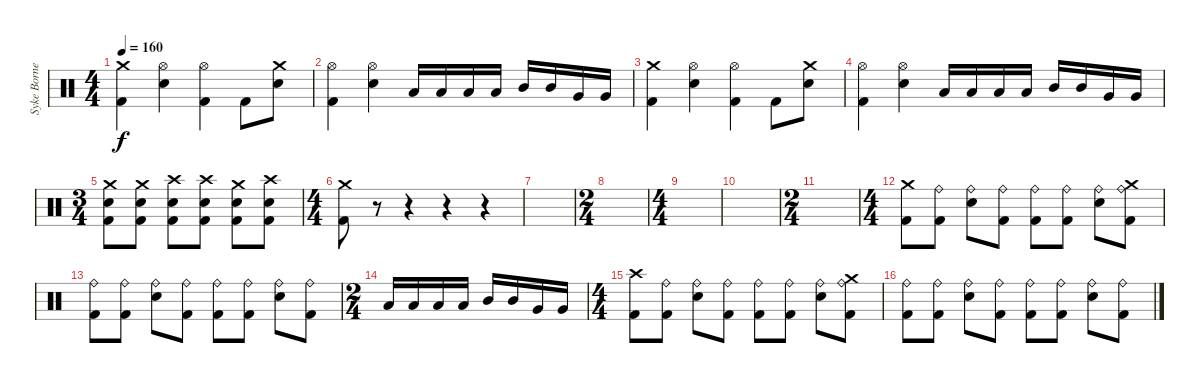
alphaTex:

\track ("Syke Bornetto (Drums)" "Syke Borne") {instrument percussion}
\staff {score}
\articulation defaults
\ts (4 4)
\tempo 160
\clef neutral
\ks c
("Crash medium (hit)" "Kick (hit) 2").4{dy f} ("Hi-Hat (open)" "Electric Snare (hit)").4 ("Hi-Hat (open)" "Kick (hit) 2").4 "Kick (hit) 2".8 ("Crash medium (hit)" "Electric Snare (hit)").8 |
("Hi-Hat (open)" "Kick (hit) 2").4 ("Hi-Hat (open)" "Electric Snare (hit)").4 "Low Floor Tom (hit)".16 "Low Floor Tom (hit)".16 "Low Tom (hit)".16 "Low Tom (hit)".16 "Mid Tom (hit)".16 "Mid Tom (hit)".16 "Very Low Tom (hit)".16 "Very Low Tom (hit)".16 |
("Crash medium (hit)" "Kick (hit) 2").4 ("Hi-Hat (open)" "Electric Snare (hit)").4 ("Hi-Hat (open)" "Kick (hit) 2").4 "Kick (hit) 2".8 ("Crash medium (hit)" "Electric Snare (hit)").8 |
("Hi-Hat (open)" "Kick (hit) 2").4 ("Hi-Hat (open)" "Electric Snare (hit)").4 "Low Floor Tom (hit)".16 "Low Floor Tom (hit)".16 "Low Tom (hit)".16 "Low Tom (hit)".16 "Mid Tom (hit)".16 "Mid Tom (hit)".16 "Very Low Tom (hit)".16 "Very Low Tom (hit)".16 |
\ts (3 4)
("Crash medium (hit)" "Electric Snare (hit)" "Kick (hit) 2").8 ("Crash medium (hit)" "Electric Snare (hit)" "Kick (hit) 2").8 ("Crash high (hit)" "Electric Snare (hit)" "Kick (hit) 2").8 ("Crash high (hit)" "Electric Snare (hit)" "Kick (hit) 2").8 ("Crash medium (hit)" "Electric Snare (hit)" "Kick (hit) 2").8 ("Crash high (hit)" "Electric Snare (hit)" "Kick (hit) 2").8 |
\ts (4 4)
("Crash medium (hit)" "Kick (hit) 2").8 r.8 r.4 r.4 r.4 |
|
\ts (2 4)
|
\ts (4 4)
|
|
\ts (2 4)
|
\ts (4 4)
("Kick (hit) 2" "Crash medium (hit)").8 ("Kick (hit) 2" "Ride (bell)").8 ("Electric Snare (hit)" "Ride (bell)").8 ("Kick (hit) 2" "Ride (bell)").8 ("Kick (hit) 2" "Ride (bell)").8 ("Kick (hit) 2" "Ride (bell)").8 ("Electric Snare (hit)" "Ride (bell)").8 ("Kick (hit) 2" "Crash medium (hit)" "Ride (bell)").8 |
("Kick (hit) 2" "Ride (bell)").8 ("Kick (hit) 2" "Ride (bell)").8 ("Electric Snare (hit)" "Ride (bell)").8 ("Kick (hit) 2" "Ride (bell)").8 ("Kick (hit) 2" "Ride (bell)").8 ("Kick (hit) 2" "Ride (bell)").8 ("Electric Snare (hit)" "Ride (bell)").8 ("Kick (hit) 2" "Ride (bell)").8 |
\ts (2 4)
"Low Floor Tom (hit)".16 "Low Floor Tom (hit)".16 "Low Tom (hit)".16 "Low Tom (hit)".16 "Mid Tom (hit)".16 "Mid Tom (hit)".16 "Very Low Tom (hit)".16 "Very Low Tom (hit)".16 |
\ts (4 4)
("Kick (hit) 2" "Crash high (hit)").8 ("Kick (hit) 2" "Ride (bell)").8 ("Electric Snare (hit)" "Ride (bell)").8 ("Kick (hit) 2" "Ride (bell)").8 ("Kick (hit) 2" "Ride (bell)").8 ("Kick (hit) 2" "Ride (bell)").8 ("Electric Snare (hit)" "Ride (bell)").8 ("Kick (hit) 2" "Crash medium (hit)" "Ride (bell)").8 |
("Kick (hit) 2" "Ride (bell)").8 ("Kick (hit) 2" "Ride (bell)").8 ("Electric Snare (hit)" "Ride (bell)").8 ("Kick (hit) 2" "Ride (bell)").8 ("Kick (hit) 2" "Ride (bell)").8 ("Kick (hit) 2" "Ride (bell)").8 ("Electric Snare (hit)" "Ride (bell)").8 ("Kick (hit) 2" "Ride (bell)").8
